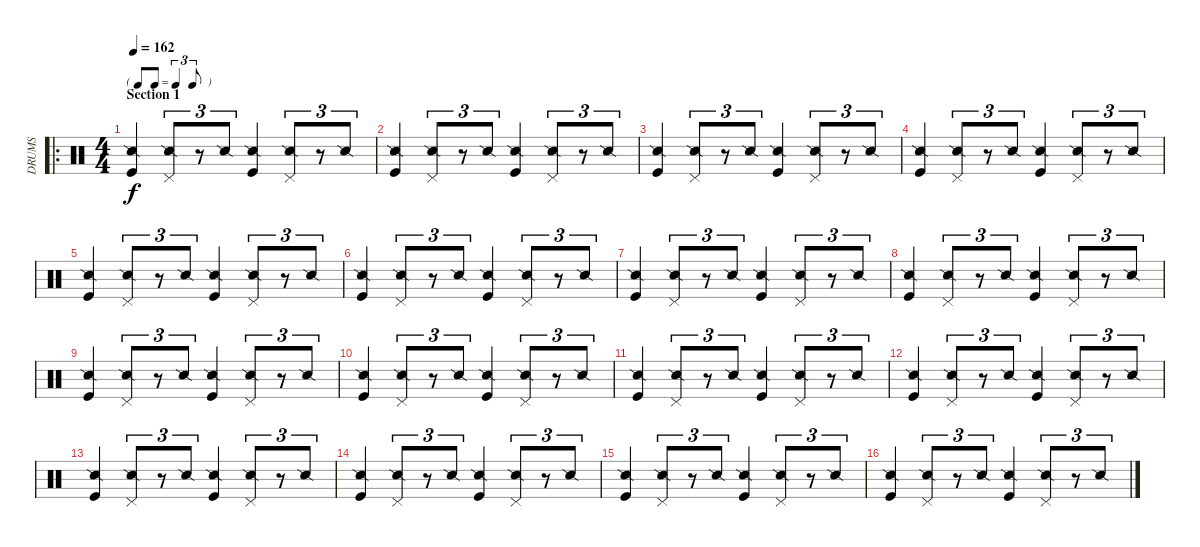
\track ("DRUMS" "DRUMS") {instrument percussion}
\staff {score}
\articulation defaults
\ro
\ts (4 4)
\tf triplet8th
\section ("" "Section 1")
\tempo 162
\clef neutral
\ks c
("Snare (side stick) 2" "Kick (hit)").4{dy f} ("Snare (side stick) 2" "Pedal Hi-Hat (hit)").8{tu (3 2)} r.8{tu (3 2)} "Snare (side stick) 2".8{tu (3 2)} ("Snare (side stick) 2" "Kick (hit)").4 ("Snare (side stick) 2" "Pedal Hi-Hat (hit)").8{tu (3 2)} r.8{tu (3 2)} "Snare (side stick) 2".8{tu (3 2)} |
("Snare (side stick) 2" "Kick (hit)").4 ("Snare (side stick) 2" "Pedal Hi-Hat (hit)").8{tu (3 2)} r.8{tu (3 2)} "Snare (side stick) 2".8{tu (3 2)} ("Snare (side stick) 2" "Kick (hit)").4 ("Snare (side stick) 2" "Pedal Hi-Hat (hit)").8{tu (3 2)} r.8{tu (3 2)} "Snare (side stick) 2".8{tu (3 2)} |
("Snare (side stick) 2" "Kick (hit)").4 ("Snare (side stick) 2" "Pedal Hi-Hat (hit)").8{tu (3 2)} r.8{tu (3 2)} "Snare (side stick) 2".8{tu (3 2)} ("Snare (side stick) 2" "Kick (hit)").4 ("Snare (side stick) 2" "Pedal Hi-Hat (hit)").8{tu (3 2)} r.8{tu (3 2)} "Snare (side stick) 2".8{tu (3 2)} |
("Snare (side stick) 2" "Kick (hit)").4 ("Snare (side stick) 2" "Pedal Hi-Hat (hit)").8{tu (3 2)} r.8{tu (3 2)} "Snare (side stick) 2".8{tu (3 2)} ("Snare (side stick) 2" "Kick (hit)").4 ("Snare (side stick) 2" "Pedal Hi-Hat (hit)").8{tu (3 2)} r.8{tu (3 2)} "Snare (side stick) 2".8{tu (3 2)} |
("Snare (side stick) 2" "Kick (hit)").4 ("Snare (side stick) 2" "Pedal Hi-Hat (hit)").8{tu (3 2)} r.8{tu (3 2)} "Snare (side stick) 2".8{tu (3 2)} ("Snare (side stick) 2" "Kick (hit)").4 ("Snare (side stick) 2" "Pedal Hi-Hat (hit)").8{tu (3 2)} r.8{tu (3 2)} "Snare (side stick) 2".8{tu (3 2)} |
("Snare (side stick) 2" "Kick (hit)").4 ("Snare (side stick) 2" "Pedal Hi-Hat (hit)").8{tu (3 2)} r.8{tu (3 2)} "Snare (side stick) 2".8{tu (3 2)} ("Snare (side stick) 2" "Kick (hit)").4 ("Snare (side stick) 2" "Pedal Hi-Hat (hit)").8{tu (3 2)} r.8{tu (3 2)} "Snare (side stick) 2".8{tu (3 2)} |
("Snare (side stick) 2" "Kick (hit)").4 ("Snare (side stick) 2" "Pedal Hi-Hat (hit)").8{tu (3 2)} r.8{tu (3 2)} "Snare (side stick) 2".8{tu (3 2)} ("Snare (side stick) 2" "Kick (hit)").4 ("Snare (side stick) 2" "Pedal Hi-Hat (hit)").8{tu (3 2)} r.8{tu (3 2)} "Snare (side stick) 2".8{tu (3 2)} |
("Snare (side stick) 2" "Kick (hit)").4 ("Snare (side stick) 2" "Pedal Hi-Hat (hit)").8{tu (3 2)} r.8{tu (3 2)} "Snare (side stick) 2".8{tu (3 2)} ("Snare (side stick) 2" "Kick (hit)").4 ("Snare (side stick) 2" "Pedal Hi-Hat (hit)").8{tu (3 2)} r.8{tu (3 2)} "Snare (side stick) 2".8{tu (3 2)} |
("Snare (side stick) 2" "Kick (hit)").4 ("Snare (side stick) 2" "Pedal Hi-Hat (hit)").8{tu (3 2)} r.8{tu (3 2)} "Snare (side stick) 2".8{tu (3 2)} ("Snare (side stick) 2" "Kick (hit)").4 ("Snare (side stick) 2" "Pedal Hi-Hat (hit)").8{tu (3 2)} r.8{tu (3 2)} "Snare (side stick) 2".8{tu (3 2)} |
("Snare (side stick) 2" "Kick (hit)").4 ("Snare (side stick) 2" "Pedal Hi-Hat (hit)").8{tu (3 2)} r.8{tu (3 2)} "Snare (side stick) 2".8{tu (3 2)} ("Snare (side stick) 2" "Kick (hit)").4 ("Snare (side stick) 2" "Pedal Hi-Hat (hit)").8{tu (3 2)} r.8{tu (3 2)} "Snare (side stick) 2".8{tu (3 2)} |
("Snare (side stick) 2" "Kick (hit)").4 ("Snare (side stick) 2" "Pedal Hi-Hat (hit)").8{tu (3 2)} r.8{tu (3 2)} "Snare (side stick) 2".8{tu (3 2)} ("Snare (side stick) 2" "Kick (hit)").4 ("Snare (side stick) 2" "Pedal Hi-Hat (hit)").8{tu (3 2)} r.8{tu (3 2)} "Snare (side stick) 2".8{tu (3 2)} |
("Snare (side stick) 2" "Kick (hit)").4 ("Snare (side stick) 2" "Pedal Hi-Hat (hit)").8{tu (3 2)} r.8{tu (3 2)} "Snare (side stick) 2".8{tu (3 2)} ("Snare (side stick) 2" "Kick (hit)").4 ("Snare (side stick) 2" "Pedal Hi-Hat (hit)").8{tu (3 2)} r.8{tu (3 2)} "Snare (side stick) 2".8{tu (3 2)} |
("Snare (side stick) 2" "Kick (hit)").4 ("Snare (side stick) 2" "Pedal Hi-Hat (hit)").8{tu (3 2)} r.8{tu (3 2)} "Snare (side stick) 2".8{tu (3 2)} ("Snare (side stick) 2" "Kick (hit)").4 ("Snare (side stick) 2" "Pedal Hi-Hat (hit)").8{tu (3 2)} r.8{tu (3 2)} "Snare (side stick) 2".8{tu (3 2)} |
("Snare (side stick) 2" "Kick (hit)").4 ("Snare (side stick) 2" "Pedal Hi-Hat (hit)").8{tu (3 2)} r.8{tu (3 2)} "Snare (side stick) 2".8{tu (3 2)} ("Snare (side stick) 2" "Kick (hit)").4 ("Snare (side stick) 2" "Pedal Hi-Hat (hit)").8{tu (3 2)} r.8{tu (3 2)} "Snare (side stick) 2".8{tu (3 2)} |
("Snare (side stick) 2" "Kick (hit)").4 ("Snare (side stick) 2" "Pedal Hi-Hat (hit)").8{tu (3 2)} r.8{tu (3 2)} "Snare (side stick) 2".8{tu (3 2)} ("Snare (side stick) 2" "Kick (hit)").4 ("Snare (side stick) 2" "Pedal Hi-Hat (hit)").8{tu (3 2)} r.8{tu (3 2)} "Snare (side stick) 2".8{tu (3 2)} |
("Snare (side stick) 2" "Kick (hit)").4 ("Snare (side stick) 2" "Pedal Hi-Hat (hit)").8{tu (3 2)} r.8{tu (3 2)} "Snare (side stick) 2".8{tu (3 2)} ("Snare (side stick) 2" "Kick (hit)").4 ("Snare (side stick) 2" "Pedal Hi-Hat (hit)").8{tu (3 2)} r.8{tu (3 2)} "Snare (side stick) 2".8{tu (3 2)}
